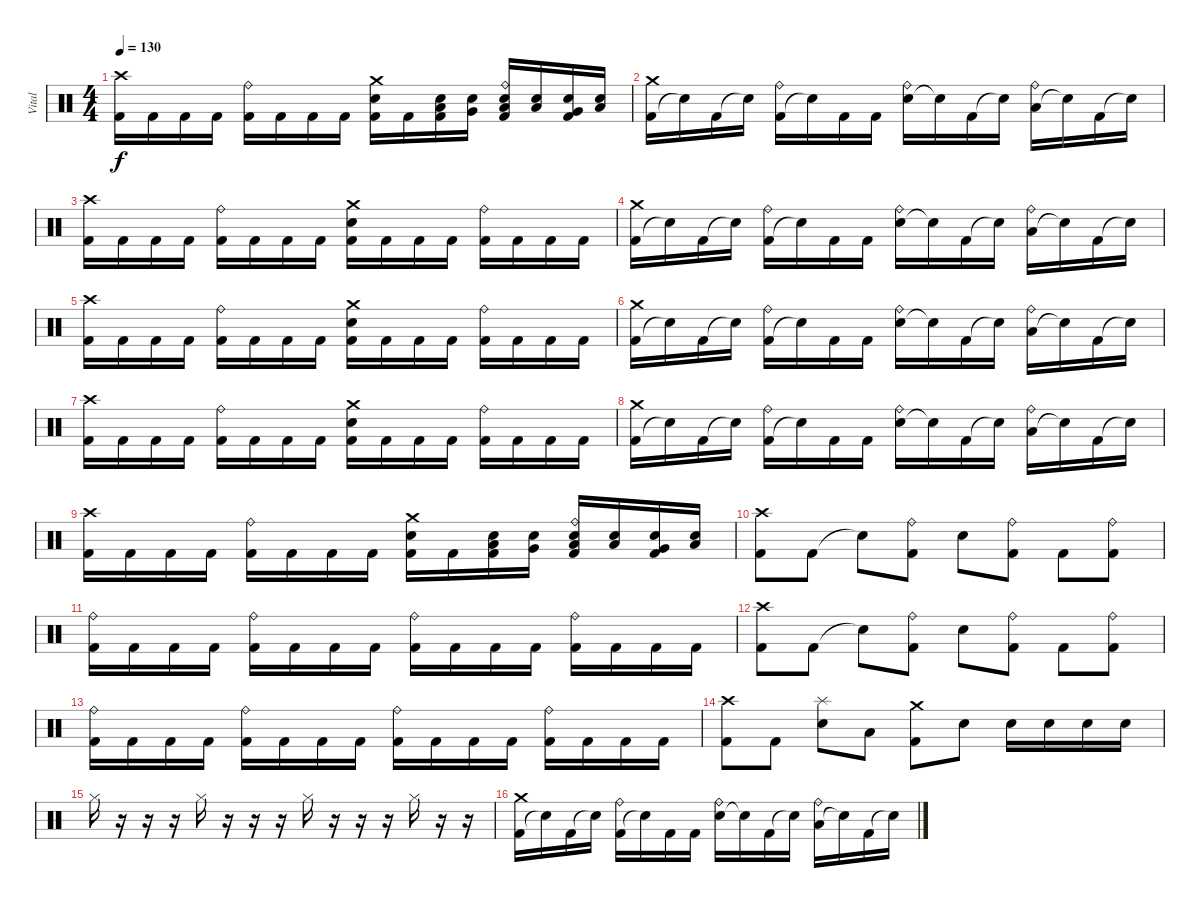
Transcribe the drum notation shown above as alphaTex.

\track ("Vital" "Vital") {instrument percussion}
\staff {score}
\articulation defaults
\ts (4 4)
\tempo 130
\clef neutral
\ks c
("Kick (hit) 2" "Crash high (hit)").16{dy f} "Kick (hit) 2".16 "Kick (hit) 2".16 "Kick (hit) 2".16 ("Kick (hit) 2" "Ride (bell)").16 "Kick (hit) 2".16 "Kick (hit) 2".16 "Kick (hit) 2".16 ("Kick (hit) 2" "Snare (hit) 2" "Crash medium (hit)").16 "Kick (hit) 2".16 ("Low Tom (hit)" "Kick (hit) 2" "Snare (hit) 2").16 ("Very Low Tom (hit)" "Snare (hit) 2").16 ("Low Tom (hit)" "Kick (hit) 2" "Snare (hit) 2" "Ride (bell)").16 ("Low Floor Tom (hit)" "Snare (hit) 2").16 ("Very Low Tom (hit)" "Kick (hit) 2" "Snare (hit) 2").16 ("Low Floor Tom (hit)" "Snare (hit) 2").16 |
("Kick (hit) 2" "Crash medium (hit)").16 "Snare (hit)"{t}.16 "Kick (hit) 2".16 "Snare (hit)"{t}.16 ("Kick (hit) 2" "Ride (bell)").16 "Snare (hit)"{t}.16 "Kick (hit) 2".16 "Kick (hit) 2".16 ("Snare (hit) 2" "Ride (bell)").16 "Snare (hit)"{t}.16 "Kick (hit) 2".16 "Snare (hit)"{t}.16 ("Low Floor Tom (hit)" "Ride (bell)").16 "Snare (hit)"{t}.16 "Kick (hit) 2".16 "Snare (hit)"{t}.16 |
("Kick (hit) 2" "Crash high (hit)").16 "Kick (hit) 2".16 "Kick (hit) 2".16 "Kick (hit) 2".16 ("Kick (hit) 2" "Ride (bell)").16 "Kick (hit) 2".16 "Kick (hit) 2".16 "Kick (hit) 2".16 ("Kick (hit) 2" "Snare (hit) 2" "Crash medium (hit)").16 "Kick (hit) 2".16 "Kick (hit) 2".16 "Kick (hit) 2".16 ("Kick (hit) 2" "Ride (bell)").16 "Kick (hit) 2".16 "Kick (hit) 2".16 "Kick (hit) 2".16 |
("Kick (hit) 2" "Crash medium (hit)").16 "Snare (hit)"{t}.16 "Kick (hit) 2".16 "Snare (hit)"{t}.16 ("Kick (hit) 2" "Ride (bell)").16 "Snare (hit)"{t}.16 "Kick (hit) 2".16 "Kick (hit) 2".16 ("Snare (hit) 2" "Ride (bell)").16 "Snare (hit)"{t}.16 "Kick (hit) 2".16 "Snare (hit)"{t}.16 ("Low Floor Tom (hit)" "Ride (bell)").16 "Snare (hit)"{t}.16 "Kick (hit) 2".16 "Snare (hit)"{t}.16 |
("Kick (hit) 2" "Crash high (hit)").16 "Kick (hit) 2".16 "Kick (hit) 2".16 "Kick (hit) 2".16 ("Kick (hit) 2" "Ride (bell)").16 "Kick (hit) 2".16 "Kick (hit) 2".16 "Kick (hit) 2".16 ("Kick (hit) 2" "Snare (hit) 2" "Crash medium (hit)").16 "Kick (hit) 2".16 "Kick (hit) 2".16 "Kick (hit) 2".16 ("Kick (hit) 2" "Ride (bell)").16 "Kick (hit) 2".16 "Kick (hit) 2".16 "Kick (hit) 2".16 |
("Kick (hit) 2" "Crash medium (hit)").16 "Snare (hit)"{t}.16 "Kick (hit) 2".16 "Snare (hit)"{t}.16 ("Kick (hit) 2" "Ride (bell)").16 "Snare (hit)"{t}.16 "Kick (hit) 2".16 "Kick (hit) 2".16 ("Snare (hit) 2" "Ride (bell)").16 "Snare (hit)"{t}.16 "Kick (hit) 2".16 "Snare (hit)"{t}.16 ("Low Floor Tom (hit)" "Ride (bell)").16 "Snare (hit)"{t}.16 "Kick (hit) 2".16 "Snare (hit)"{t}.16 |
("Kick (hit) 2" "Crash high (hit)").16 "Kick (hit) 2".16 "Kick (hit) 2".16 "Kick (hit) 2".16 ("Kick (hit) 2" "Ride (bell)").16 "Kick (hit) 2".16 "Kick (hit) 2".16 "Kick (hit) 2".16 ("Kick (hit) 2" "Snare (hit) 2" "Crash medium (hit)").16 "Kick (hit) 2".16 "Kick (hit) 2".16 "Kick (hit) 2".16 ("Kick (hit) 2" "Ride (bell)").16 "Kick (hit) 2".16 "Kick (hit) 2".16 "Kick (hit) 2".16 |
("Kick (hit) 2" "Crash medium (hit)").16 "Snare (hit)"{t}.16 "Kick (hit) 2".16 "Snare (hit)"{t}.16 ("Kick (hit) 2" "Ride (bell)").16 "Snare (hit)"{t}.16 "Kick (hit) 2".16 "Kick (hit) 2".16 ("Snare (hit) 2" "Ride (bell)").16 "Snare (hit)"{t}.16 "Kick (hit) 2".16 "Snare (hit)"{t}.16 ("Low Floor Tom (hit)" "Ride (bell)").16 "Snare (hit)"{t}.16 "Kick (hit) 2".16 "Snare (hit)"{t}.16 |
("Kick (hit) 2" "Crash high (hit)").16 "Kick (hit) 2".16 "Kick (hit) 2".16 "Kick (hit) 2".16 ("Kick (hit) 2" "Ride (bell)").16 "Kick (hit) 2".16 "Kick (hit) 2".16 "Kick (hit) 2".16 ("Kick (hit) 2" "Snare (hit) 2" "Crash medium (hit)").16 "Kick (hit) 2".16 ("Low Tom (hit)" "Kick (hit) 2" "Snare (hit) 2").16 ("Very Low Tom (hit)" "Snare (hit) 2").16 ("Low Tom (hit)" "Kick (hit) 2" "Snare (hit) 2" "Ride (bell)").16 ("Low Floor Tom (hit)" "Snare (hit) 2").16 ("Very Low Tom (hit)" "Kick (hit) 2" "Snare (hit) 2").16 ("Low Floor Tom (hit)" "Snare (hit) 2").16 |
("Kick (hit) 2" "Crash high (hit)").8 "Kick (hit) 2".8 "Snare (hit)"{t}.8 ("Kick (hit) 2" "Ride (bell)").8 "Snare (hit) 2".8 ("Kick (hit) 2" "Ride (bell)").8 "Kick (hit) 2".8 ("Kick (hit) 2" "Ride (bell)").8 |
("Kick (hit) 2" "Ride (bell)").16 "Kick (hit) 2".16 "Kick (hit) 2".16 "Kick (hit) 2".16 ("Kick (hit) 2" "Ride (bell)").16 "Kick (hit) 2".16 "Kick (hit) 2".16 "Kick (hit) 2".16 ("Kick (hit) 2" "Ride (bell)").16 "Kick (hit) 2".16 "Kick (hit) 2".16 "Kick (hit) 2".16 ("Kick (hit) 2" "Ride (bell)").16 "Kick (hit) 2".16 "Kick (hit) 2".16 "Kick (hit) 2".16 |
("Kick (hit) 2" "Crash high (hit)").8 "Kick (hit) 2".8 "Snare (hit)"{t}.8 ("Kick (hit) 2" "Ride (bell)").8 "Snare (hit) 2".8 ("Kick (hit) 2" "Ride (bell)").8 "Kick (hit) 2".8 ("Kick (hit) 2" "Ride (bell)").8 |
("Kick (hit) 2" "Ride (bell)").16 "Kick (hit) 2".16 "Kick (hit) 2".16 "Kick (hit) 2".16 ("Kick (hit) 2" "Ride (bell)").16 "Kick (hit) 2".16 "Kick (hit) 2".16 "Kick (hit) 2".16 ("Kick (hit) 2" "Ride (bell)").16 "Kick (hit) 2".16 "Kick (hit) 2".16 "Kick (hit) 2".16 ("Kick (hit) 2" "Ride (bell)").16 "Kick (hit) 2".16 "Kick (hit) 2".16 "Kick (hit) 2".16 |
("Kick (hit) 2" "Crash high (hit)").8 "Kick (hit) 2".8 ("Snare (hit) 2" "Splash (hit)").8 "Low Floor Tom (hit)".8 ("Kick (hit) 2" "Crash medium (hit)").8 "Snare (hit) 2".8 "Snare (hit) 2".16 "Snare (hit) 2".16 "Snare (hit) 2".16 "Snare (hit) 2".16 |
"Hi-Hat (closed)".16 r.16 r.16 r.16 "Hi-Hat (closed)".16 r.16 r.16 r.16 "Hi-Hat (closed)".16 r.16 r.16 r.16 "Hi-Hat (closed)".16 r.16 r.16 |
("Kick (hit) 2" "Crash medium (hit)").16 "Snare (hit)"{t}.16 "Kick (hit) 2".16 "Snare (hit)"{t}.16 ("Kick (hit) 2" "Ride (bell)").16 "Snare (hit)"{t}.16 "Kick (hit) 2".16 "Kick (hit) 2".16 ("Snare (hit) 2" "Ride (bell)").16 "Snare (hit)"{t}.16 "Kick (hit) 2".16 "Snare (hit)"{t}.16 ("Low Floor Tom (hit)" "Ride (bell)").16 "Snare (hit)"{t}.16 "Kick (hit) 2".16 "Snare (hit)"{t}.16
